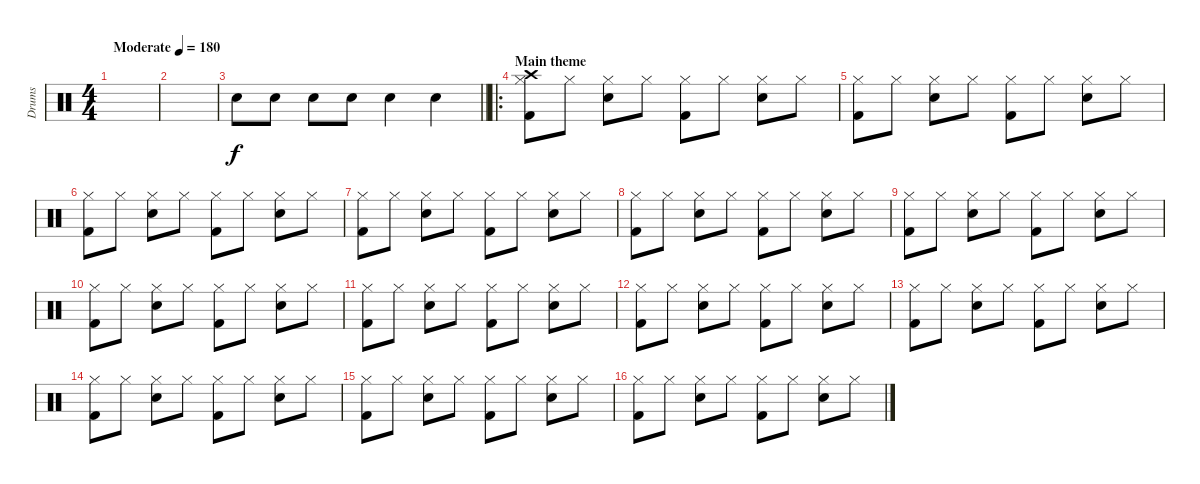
\track ("Drums" "Drums") {instrument percussion}
\staff {score}
\articulation defaults
\ts (4 4)
\tempo (180 "Moderate")
\clef neutral
\ks c
|
|
\barLineRight lightlight "Snare (hit) 2".8 "Snare (hit) 2".8 "Snare (hit) 2".8 "Snare (hit) 2".8 "Snare (hit) 2".4 "Snare (hit) 2".4
|
\ro
\section ("" "Main theme")
("Crash high (hit)" "Hi-Hat (closed)" "Kick (hit) 2").8{dy f} "Hi-Hat (closed)".8 ("Hi-Hat (closed)" "Snare (hit) 2").8 "Hi-Hat (closed)".8 ("Hi-Hat (closed)" "Kick (hit) 2").8 "Hi-Hat (closed)".8 ("Hi-Hat (closed)" "Snare (hit) 2").8 "Hi-Hat (closed)".8 |
("Hi-Hat (closed)" "Kick (hit) 2").8 "Hi-Hat (closed)".8 ("Hi-Hat (closed)" "Snare (hit) 2").8 "Hi-Hat (closed)".8 ("Hi-Hat (closed)" "Kick (hit) 2").8 "Hi-Hat (closed)".8 ("Hi-Hat (closed)" "Snare (hit) 2").8 "Hi-Hat (closed)".8 |
("Hi-Hat (closed)" "Kick (hit) 2").8 "Hi-Hat (closed)".8 ("Hi-Hat (closed)" "Snare (hit) 2").8 "Hi-Hat (closed)".8 ("Hi-Hat (closed)" "Kick (hit) 2").8 "Hi-Hat (closed)".8 ("Hi-Hat (closed)" "Snare (hit) 2").8 "Hi-Hat (closed)".8 |
("Hi-Hat (closed)" "Kick (hit) 2").8 "Hi-Hat (closed)".8 ("Hi-Hat (closed)" "Snare (hit) 2").8 "Hi-Hat (closed)".8 ("Hi-Hat (closed)" "Kick (hit) 2").8 "Hi-Hat (closed)".8 ("Hi-Hat (closed)" "Snare (hit) 2").8 "Hi-Hat (closed)".8 |
("Hi-Hat (closed)" "Kick (hit) 2").8 "Hi-Hat (closed)".8 ("Hi-Hat (closed)" "Snare (hit) 2").8 "Hi-Hat (closed)".8 ("Hi-Hat (closed)" "Kick (hit) 2").8 "Hi-Hat (closed)".8 ("Hi-Hat (closed)" "Snare (hit) 2").8 "Hi-Hat (closed)".8 |
("Hi-Hat (closed)" "Kick (hit) 2").8 "Hi-Hat (closed)".8 ("Hi-Hat (closed)" "Snare (hit) 2").8 "Hi-Hat (closed)".8 ("Hi-Hat (closed)" "Kick (hit) 2").8 "Hi-Hat (closed)".8 ("Hi-Hat (closed)" "Snare (hit) 2").8 "Hi-Hat (closed)".8 |
("Hi-Hat (closed)" "Kick (hit) 2").8 "Hi-Hat (closed)".8 ("Hi-Hat (closed)" "Snare (hit) 2").8 "Hi-Hat (closed)".8 ("Hi-Hat (closed)" "Kick (hit) 2").8 "Hi-Hat (closed)".8 ("Hi-Hat (closed)" "Snare (hit) 2").8 "Hi-Hat (closed)".8 |
("Hi-Hat (closed)" "Kick (hit) 2").8 "Hi-Hat (closed)".8 ("Hi-Hat (closed)" "Snare (hit) 2").8 "Hi-Hat (closed)".8 ("Hi-Hat (closed)" "Kick (hit) 2").8 "Hi-Hat (closed)".8 ("Hi-Hat (closed)" "Snare (hit) 2").8 "Hi-Hat (closed)".8 |
("Hi-Hat (closed)" "Kick (hit) 2").8 "Hi-Hat (closed)".8 ("Hi-Hat (closed)" "Snare (hit) 2").8 "Hi-Hat (closed)".8 ("Hi-Hat (closed)" "Kick (hit) 2").8 "Hi-Hat (closed)".8 ("Hi-Hat (closed)" "Snare (hit) 2").8 "Hi-Hat (closed)".8 |
("Hi-Hat (closed)" "Kick (hit) 2").8 "Hi-Hat (closed)".8 ("Hi-Hat (closed)" "Snare (hit) 2").8 "Hi-Hat (closed)".8 ("Hi-Hat (closed)" "Kick (hit) 2").8 "Hi-Hat (closed)".8 ("Hi-Hat (closed)" "Snare (hit) 2").8 "Hi-Hat (closed)".8 |
("Hi-Hat (closed)" "Kick (hit) 2").8 "Hi-Hat (closed)".8 ("Hi-Hat (closed)" "Snare (hit) 2").8 "Hi-Hat (closed)".8 ("Hi-Hat (closed)" "Kick (hit) 2").8 "Hi-Hat (closed)".8 ("Hi-Hat (closed)" "Snare (hit) 2").8 "Hi-Hat (closed)".8 |
("Hi-Hat (closed)" "Kick (hit) 2").8 "Hi-Hat (closed)".8 ("Hi-Hat (closed)" "Snare (hit) 2").8 "Hi-Hat (closed)".8 ("Hi-Hat (closed)" "Kick (hit) 2").8 "Hi-Hat (closed)".8 ("Hi-Hat (closed)" "Snare (hit) 2").8 "Hi-Hat (closed)".8 |
("Hi-Hat (closed)" "Kick (hit) 2").8 "Hi-Hat (closed)".8 ("Hi-Hat (closed)" "Snare (hit) 2").8 "Hi-Hat (closed)".8 ("Hi-Hat (closed)" "Kick (hit) 2").8 "Hi-Hat (closed)".8 ("Hi-Hat (closed)" "Snare (hit) 2").8 "Hi-Hat (closed)".8
